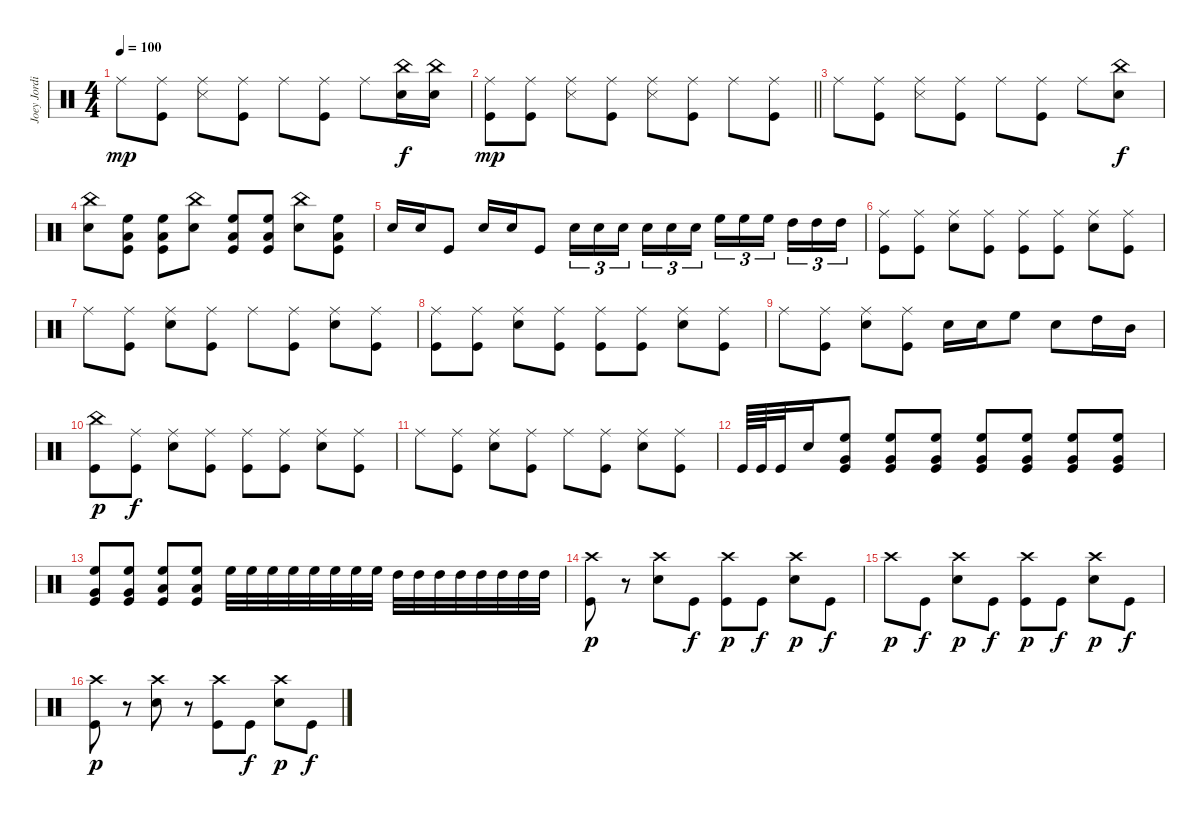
\track ("Joey Jordison" "Joey Jordi") {instrument percussion}
\staff {score}
\articulation defaults
\ts (4 4)
\tempo 100
\clef neutral
\ks c "Ride (middle)".8{dy mp}
("Kick (hit)" "Ride (middle)").8 ("Snare (side stick) 3" "Ride (middle)").8 ("Kick (hit)" "Ride (middle)").8 "Ride (middle)".8 ("Kick (hit)" "Ride (middle)").8 "Ride (middle)".8 ("Snare (hit) 2" "China (hit)").16{dy f} ("Snare (hit) 2" "China (hit)").16 |
\barLineRight lightlight
("Kick (hit)" "Ride (middle)").8{dy mp} ("Kick (hit)" "Ride (middle)").8 ("Snare (side stick) 3" "Ride (middle)").8 ("Kick (hit)" "Ride (middle)").8 ("Snare (side stick) 3" "Ride (middle)").8 ("Kick (hit)" "Ride (middle)").8 "Ride (middle)".8 ("Kick (hit)" "Ride (middle)").8 |
"Ride (middle)".8 ("Kick (hit)" "Ride (middle)").8 ("Snare (side stick) 3" "Ride (middle)").8 ("Kick (hit)" "Ride (middle)").8 "Ride (middle)".8 ("Kick (hit)" "Ride (middle)").8 "Ride (middle)".8 ("Snare (hit) 2" "China (hit)").8{dy f} |
("Snare (hit) 2" "China (hit)").8 ("High Floor Tom (hit)" "Low Floor Tom (hit)" "Kick (hit)").8 ("High Floor Tom (hit)" "Low Floor Tom (hit)" "Kick (hit)").8 ("China (hit)" "Snare (hit) 2").8 ("High Floor Tom (hit)" "Low Floor Tom (hit)" "Kick (hit)").8 ("High Floor Tom (hit)" "Low Floor Tom (hit)" "Kick (hit)").8 ("Snare (hit) 2" "China (hit)").8 ("High Floor Tom (hit)" "Low Floor Tom (hit)" "Kick (hit)").8 |
"Snare (hit) 2".16 "Snare (hit) 2".16 "Kick (hit)".8 "Snare (hit) 2".16 "Snare (hit) 2".16 "Kick (hit)".8 "Snare (hit) 2".16{tu (3 2)} "Snare (hit) 2".16{tu (3 2)} "Snare (hit) 2".16{tu (3 2) beam splitsecondary} "Snare (hit) 2".16{tu (3 2)} "Snare (hit) 2".16{tu (3 2)} "Snare (hit) 2".16{tu (3 2)} "High Floor Tom (hit)".16{tu (3 2)} "High Floor Tom (hit)".16{tu (3 2)} "High Floor Tom (hit)".16{tu (3 2) beam splitsecondary} "High Tom (hit)".16{tu (3 2)} "High Tom (hit)".16{tu (3 2)} "High Tom (hit)".16{tu (3 2)} |
("Kick (hit)" "Ride (middle)").8 ("Kick (hit)" "Ride (middle)").8 ("Snare (hit) 2" "Ride (middle)").8 ("Kick (hit)" "Ride (middle)").8 ("Kick (hit)" "Ride (middle)").8 ("Kick (hit)" "Ride (middle)").8 ("Snare (hit) 2" "Ride (middle)").8 ("Kick (hit)" "Ride (middle)").8 |
"Ride (middle)".8 ("Kick (hit)" "Ride (middle)").8 ("Snare (hit) 2" "Ride (middle)").8 ("Kick (hit)" "Ride (middle)").8 "Ride (middle)".8 ("Kick (hit)" "Ride (middle)").8 ("Snare (hit) 2" "Ride (middle)").8 ("Kick (hit)" "Ride (middle)").8 |
("Kick (hit)" "Ride (middle)").8 ("Kick (hit)" "Ride (middle)").8 ("Snare (hit) 2" "Ride (middle)").8 ("Kick (hit)" "Ride (middle)").8 ("Kick (hit)" "Ride (middle)").8 ("Kick (hit)" "Ride (middle)").8 ("Snare (hit) 2" "Ride (middle)").8 ("Kick (hit)" "Ride (middle)").8 |
"Ride (middle)".8 ("Kick (hit)" "Ride (middle)").8 ("Snare (hit) 2" "Ride (middle)").8 ("Kick (hit)" "Ride (middle)").8 "Snare (hit) 2".16 "Snare (hit) 2".16 "High Floor Tom (hit)".8 "Snare (hit) 2".8 "High Tom (hit)".16 "Mid Tom (hit)".16 |
("Kick (hit)" "China (hit)").8{dy p} ("Kick (hit)" "Ride (middle)").8{dy f} ("Snare (hit) 2" "Ride (middle)").8 ("Kick (hit)" "Ride (middle)").8 ("Kick (hit)" "Ride (middle)").8 ("Kick (hit)" "Ride (middle)").8 ("Snare (hit) 2" "Ride (middle)").8 ("Kick (hit)" "Ride (middle)").8 |
"Ride (middle)".8 ("Kick (hit)" "Ride (middle)").8 ("Snare (hit) 2" "Ride (middle)").8 ("Kick (hit)" "Ride (middle)").8 "Ride (middle)".8 ("Kick (hit)" "Ride (middle)").8 ("Snare (hit) 2" "Ride (middle)").8 ("Kick (hit)" "Ride (middle)").8 |
"Kick (hit)".64 "Kick (hit)".64 "Kick (hit)".32 "Snare (hit) 2".16 ("High Floor Tom (hit)" "Kick (hit)" "Very Low Tom (hit)").8 ("High Floor Tom (hit)" "Kick (hit)" "Very Low Tom (hit)").8 ("High Floor Tom (hit)" "Kick (hit)" "Very Low Tom (hit)").8 ("High Floor Tom (hit)" "Kick (hit)" "Very Low Tom (hit)").8 ("High Floor Tom (hit)" "Kick (hit)" "Very Low Tom (hit)").8 ("High Floor Tom (hit)" "Kick (hit)" "Very Low Tom (hit)").8 ("High Floor Tom (hit)" "Kick (hit)" "Very Low Tom (hit)").8 |
("High Floor Tom (hit)" "Kick (hit)" "Very Low Tom (hit)").8 ("High Floor Tom (hit)" "Kick (hit)" "Very Low Tom (hit)").8 ("High Floor Tom (hit)" "Kick (hit)" "Low Tom (hit)").8 ("High Floor Tom (hit)" "Kick (hit)" "Low Tom (hit)").8 "High Floor Tom (hit)".32 "High Floor Tom (hit)".32 "High Floor Tom (hit)".32 "High Floor Tom (hit)".32 "High Floor Tom (hit)".32 "High Floor Tom (hit)".32 "High Floor Tom (hit)".32 "High Floor Tom (hit)".32 "High Tom (hit)".32 "High Tom (hit)".32 "High Tom (hit)".32 "High Tom (hit)".32 "High Tom (hit)".32 "High Tom (hit)".32 "High Tom (hit)".32 "High Tom (hit)".32 |
("Kick (hit)" "Crash high (hit)").8{dy p} r.8 ("Snare (hit) 2" "Crash high (hit)").8 "Kick (hit)".8{dy f} ("Kick (hit)" "Crash high (hit)").8{dy p} "Kick (hit)".8{dy f} ("Snare (hit) 2" "Crash high (hit)").8{dy p} "Kick (hit)".8{dy f} |
"Crash high (hit)".8{dy p} "Kick (hit)".8{dy f} ("Snare (hit) 2" "Crash high (hit)").8{dy p} "Kick (hit)".8{dy f} ("Kick (hit)" "Crash high (hit)").8{dy p} "Kick (hit)".8{dy f} ("Snare (hit) 2" "Crash high (hit)").8{dy p} "Kick (hit)".8{dy f} |
("Kick (hit)" "Crash high (hit)").8{dy p} r.8 ("Snare (hit) 2" "Crash high (hit)").8 r.8 ("Kick (hit)" "Crash high (hit)").8 "Kick (hit)".8{dy f} ("Snare (hit) 2" "Crash high (hit)").8{dy p} "Kick (hit)".8{dy f}
